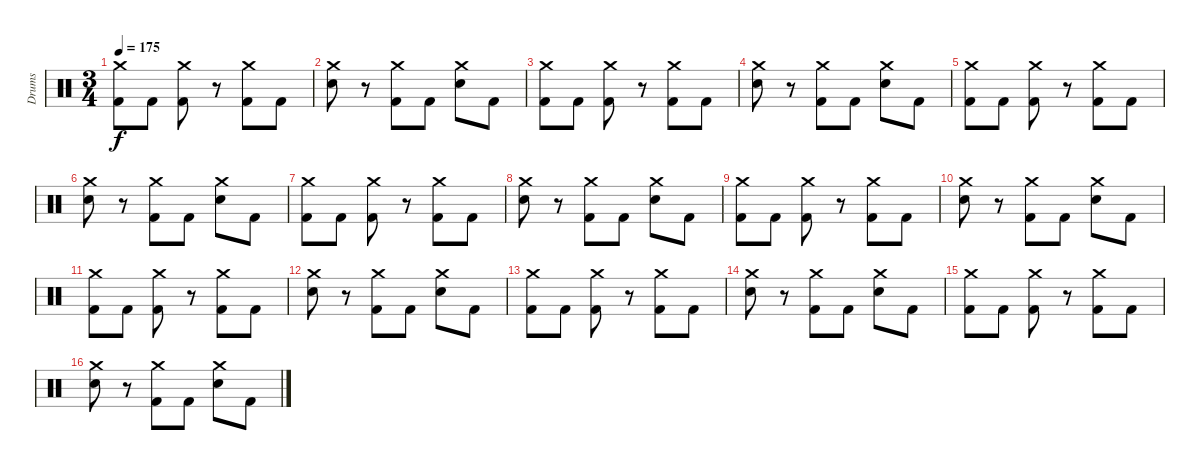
\track ("Drums" "Drums") {instrument percussion}
\staff {score}
\articulation defaults
\ts (3 4)
\tempo 175
\clef neutral
\ks c
("Crash medium (hit)" "Kick (hit) 2").8{dy f} "Kick (hit) 2".8 ("Crash medium (hit)" "Kick (hit) 2").8 r.8 ("Crash medium (hit)" "Kick (hit) 2").8 "Kick (hit) 2".8 |
("Crash medium (hit)" "Electric Snare (hit)").8 r.8 ("Crash medium (hit)" "Kick (hit) 2").8 "Kick (hit) 2".8 ("Crash medium (hit)" "Electric Snare (hit)").8 "Kick (hit) 2".8 |
("Crash medium (hit)" "Kick (hit) 2").8 "Kick (hit) 2".8 ("Crash medium (hit)" "Kick (hit) 2").8 r.8 ("Crash medium (hit)" "Kick (hit) 2").8 "Kick (hit) 2".8 |
("Crash medium (hit)" "Electric Snare (hit)").8 r.8 ("Crash medium (hit)" "Kick (hit) 2").8 "Kick (hit) 2".8 ("Crash medium (hit)" "Electric Snare (hit)").8 "Kick (hit) 2".8 |
("Crash medium (hit)" "Kick (hit) 2").8 "Kick (hit) 2".8 ("Crash medium (hit)" "Kick (hit) 2").8 r.8 ("Crash medium (hit)" "Kick (hit) 2").8 "Kick (hit) 2".8 |
("Crash medium (hit)" "Electric Snare (hit)").8 r.8 ("Crash medium (hit)" "Kick (hit) 2").8 "Kick (hit) 2".8 ("Crash medium (hit)" "Electric Snare (hit)").8 "Kick (hit) 2".8 |
("Crash medium (hit)" "Kick (hit) 2").8 "Kick (hit) 2".8 ("Crash medium (hit)" "Kick (hit) 2").8 r.8 ("Crash medium (hit)" "Kick (hit) 2").8 "Kick (hit) 2".8 |
("Crash medium (hit)" "Electric Snare (hit)").8 r.8 ("Crash medium (hit)" "Kick (hit) 2").8 "Kick (hit) 2".8 ("Crash medium (hit)" "Electric Snare (hit)").8 "Kick (hit) 2".8 |
("Crash medium (hit)" "Kick (hit) 2").8 "Kick (hit) 2".8 ("Crash medium (hit)" "Kick (hit) 2").8 r.8 ("Crash medium (hit)" "Kick (hit) 2").8 "Kick (hit) 2".8 |
("Crash medium (hit)" "Electric Snare (hit)").8 r.8 ("Crash medium (hit)" "Kick (hit) 2").8 "Kick (hit) 2".8 ("Crash medium (hit)" "Electric Snare (hit)").8 "Kick (hit) 2".8 |
("Crash medium (hit)" "Kick (hit) 2").8 "Kick (hit) 2".8 ("Crash medium (hit)" "Kick (hit) 2").8 r.8 ("Crash medium (hit)" "Kick (hit) 2").8 "Kick (hit) 2".8 |
("Crash medium (hit)" "Electric Snare (hit)").8 r.8 ("Crash medium (hit)" "Kick (hit) 2").8 "Kick (hit) 2".8 ("Crash medium (hit)" "Electric Snare (hit)").8 "Kick (hit) 2".8 |
("Crash medium (hit)" "Kick (hit) 2").8 "Kick (hit) 2".8 ("Crash medium (hit)" "Kick (hit) 2").8 r.8 ("Crash medium (hit)" "Kick (hit) 2").8 "Kick (hit) 2".8 |
("Crash medium (hit)" "Electric Snare (hit)").8 r.8 ("Crash medium (hit)" "Kick (hit) 2").8 "Kick (hit) 2".8 ("Crash medium (hit)" "Electric Snare (hit)").8 "Kick (hit) 2".8 |
("Crash medium (hit)" "Kick (hit) 2").8 "Kick (hit) 2".8 ("Crash medium (hit)" "Kick (hit) 2").8 r.8 ("Crash medium (hit)" "Kick (hit) 2").8 "Kick (hit) 2".8 |
("Crash medium (hit)" "Electric Snare (hit)").8 r.8 ("Crash medium (hit)" "Kick (hit) 2").8 "Kick (hit) 2".8 ("Crash medium (hit)" "Electric Snare (hit)").8 "Kick (hit) 2".8
